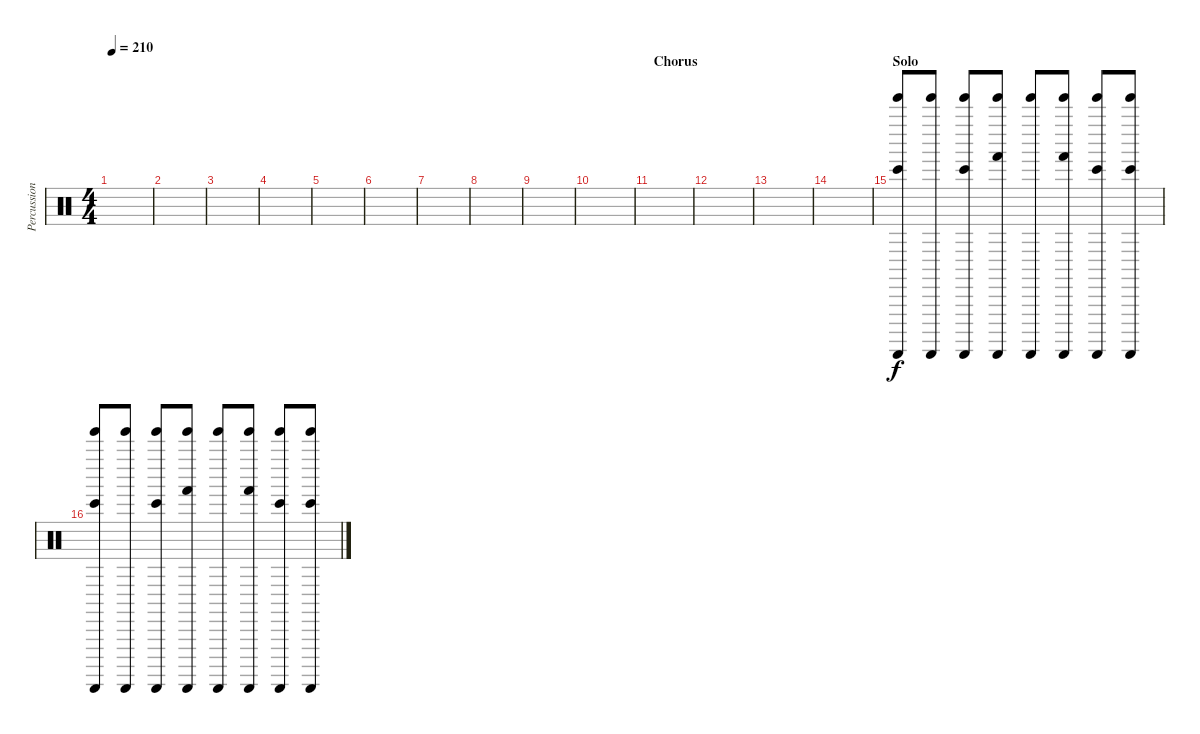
\track ("Percussion" "Percussion") {instrument percussion}
\staff {score}
\articulation defaults
\ts (4 4)
\tempo 210
\clef neutral
\ks c
|
|
|
|
|
|
|
|
|
|
\section ("" "Chorus")
|
|
|
|
\section ("" "Solo")
("Guiro (scrap-return)" "Tinkle Bell (hit)" "Bongo High (hit)").8 ("Guiro (scrap-return)" "Tinkle Bell (hit)").8 ("Guiro (scrap-return)" "Tinkle Bell (hit)" "Bongo High (hit)").8 ("Guiro (scrap-return)" "Tinkle Bell (hit)" "Hand (hit)").8 ("Guiro (scrap-return)" "Tinkle Bell (hit)").8 ("Guiro (scrap-return)" "Tinkle Bell (hit)" "Hand (hit)").8 ("Guiro (scrap-return)" "Tinkle Bell (hit)" "Bongo High (hit)").8 ("Guiro (scrap-return)" "Tinkle Bell (hit)" "Bongo High (hit)").8 |
("Guiro (scrap-return)" "Tinkle Bell (hit)" "Bongo High (hit)").8 ("Guiro (scrap-return)" "Tinkle Bell (hit)").8 ("Guiro (scrap-return)" "Tinkle Bell (hit)" "Bongo High (hit)").8 ("Guiro (scrap-return)" "Tinkle Bell (hit)" "Hand (hit)").8 ("Guiro (scrap-return)" "Tinkle Bell (hit)").8 ("Guiro (scrap-return)" "Tinkle Bell (hit)" "Hand (hit)").8 ("Guiro (scrap-return)" "Tinkle Bell (hit)" "Bongo High (hit)").8 ("Guiro (scrap-return)" "Tinkle Bell (hit)" "Bongo High (hit)").8
